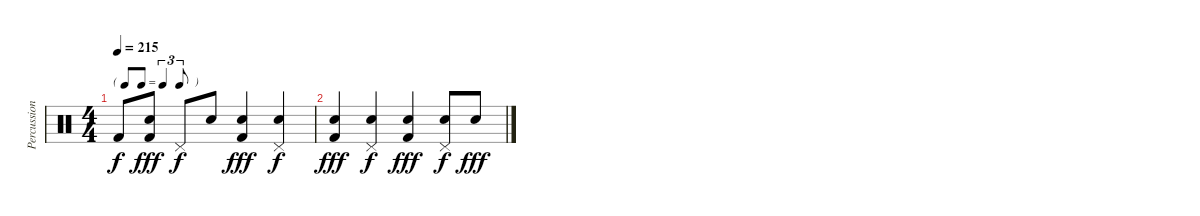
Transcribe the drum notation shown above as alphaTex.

\track ("Percussion" "Percussion") {instrument percussion}
\staff {score}
\articulation defaults
\ts (4 4)
\tf triplet8th
\tempo 215
\clef neutral
\ks c "Kick (hit) 2"{t}.8{dy f}
("Snare (hit) 2" "Kick (hit) 2").8{dy fff} "Pedal Hi-Hat (hit)".8{dy f} "Snare (hit) 2".8 ("Snare (hit) 2" "Kick (hit) 2").4{dy fff} ("Snare (hit) 2" "Pedal Hi-Hat (hit)").4{dy f} |
("Snare (hit) 2" "Kick (hit) 2").4{dy fff} ("Snare (hit) 2" "Pedal Hi-Hat (hit)").4{dy f} ("Snare (hit) 2" "Kick (hit) 2").4{dy fff} ("Snare (hit) 2" "Pedal Hi-Hat (hit)").8{dy f} "Snare (hit) 2".8{dy fff}
